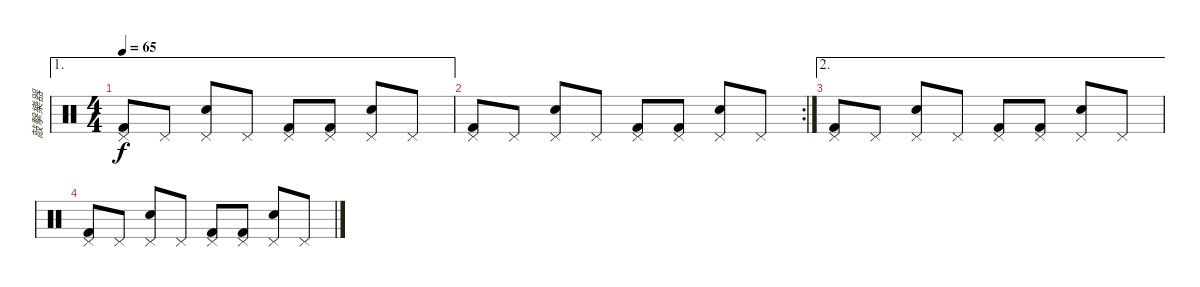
\track ("敲擊樂器" "敲擊樂器") {instrument percussion}
\staff {score}
\articulation defaults
\ae 1
\ts (4 4)
\tempo 65
\clef neutral
\ks c
("Kick (hit) 2" "Pedal Hi-Hat (hit)").8{dy f} "Pedal Hi-Hat (hit)".8 ("Electric Snare (hit)" "Pedal Hi-Hat (hit)").8 "Pedal Hi-Hat (hit)".8 ("Kick (hit) 2" "Pedal Hi-Hat (hit)").8 ("Kick (hit) 2" "Pedal Hi-Hat (hit)").8 ("Electric Snare (hit)" "Pedal Hi-Hat (hit)").8 "Pedal Hi-Hat (hit)".8 |
\rc 2
("Kick (hit) 2" "Pedal Hi-Hat (hit)").8 "Pedal Hi-Hat (hit)".8 ("Electric Snare (hit)" "Pedal Hi-Hat (hit)").8 "Pedal Hi-Hat (hit)".8 ("Kick (hit) 2" "Pedal Hi-Hat (hit)").8 ("Kick (hit) 2" "Pedal Hi-Hat (hit)").8 ("Electric Snare (hit)" "Pedal Hi-Hat (hit)").8 "Pedal Hi-Hat (hit)".8 |
\ae 2
("Kick (hit) 2" "Pedal Hi-Hat (hit)").8 "Pedal Hi-Hat (hit)".8 ("Electric Snare (hit)" "Pedal Hi-Hat (hit)").8 "Pedal Hi-Hat (hit)".8 ("Kick (hit) 2" "Pedal Hi-Hat (hit)").8 ("Kick (hit) 2" "Pedal Hi-Hat (hit)").8 ("Electric Snare (hit)" "Pedal Hi-Hat (hit)").8 "Pedal Hi-Hat (hit)".8 |
("Kick (hit) 2" "Pedal Hi-Hat (hit)").8 "Pedal Hi-Hat (hit)".8 ("Electric Snare (hit)" "Pedal Hi-Hat (hit)").8 "Pedal Hi-Hat (hit)".8 ("Kick (hit) 2" "Pedal Hi-Hat (hit)").8 ("Kick (hit) 2" "Pedal Hi-Hat (hit)").8 ("Electric Snare (hit)" "Pedal Hi-Hat (hit)").8 "Pedal Hi-Hat (hit)".8
